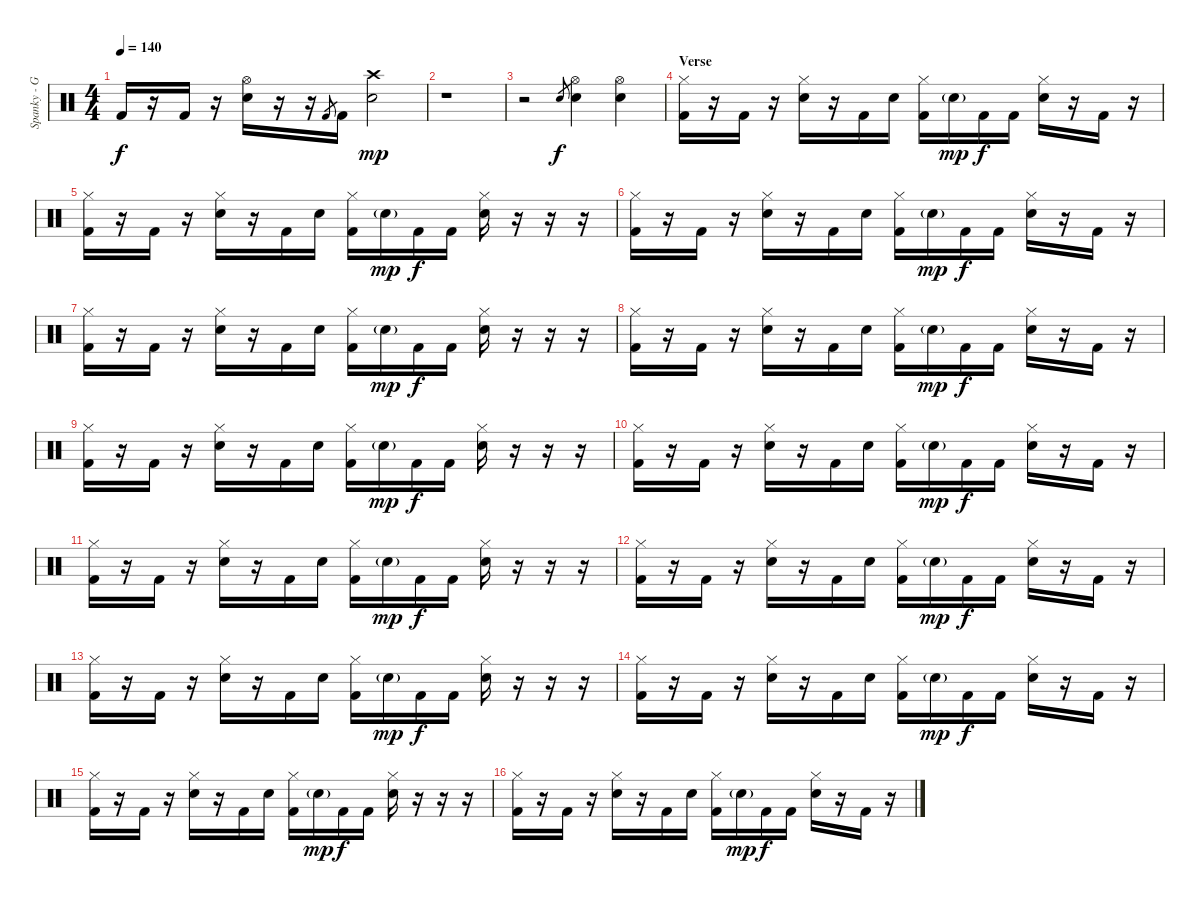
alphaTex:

\track ("Spanky - G (Ex-drummer)" "Spanky - G") {instrument percussion}
\staff {score}
\articulation defaults
\ts (4 4)
\tempo 140
\clef neutral
\ks c "Kick (hit) 2".16{dy f}
r.16 "Kick (hit) 2".16 r.16 ("Hi-Hat (open)" "Electric Snare (hit)").16 r.16 r.16 "Kick (hit) 2".8{gr} "Kick (hit) 2".16 ("Crash high (hit)" "Electric Snare (hit)").2{dy mp} |
r.1 |
r.2 "Electric Snare (hit)".8{gr dy f} ("Hi-Hat (open)" "Electric Snare (hit)").4 ("Hi-Hat (open)" "Electric Snare (hit)").4 |
\section ("" "Verse")
("Hi-Hat (closed)" "Kick (hit) 2").16 r.16 "Kick (hit) 2".16 r.16 ("Hi-Hat (closed)" "Electric Snare (hit)").16 r.16 "Kick (hit) 2".16 "Electric Snare (hit)".16 ("Hi-Hat (closed)" "Kick (hit) 2").16 "Electric Snare (hit)"{g}.16{dy mp} "Kick (hit) 2".16{dy f} "Kick (hit) 2".16 ("Hi-Hat (closed)" "Electric Snare (hit)").16 r.16 "Kick (hit) 2".16 r.16 |
("Hi-Hat (closed)" "Kick (hit) 2").16 r.16 "Kick (hit) 2".16 r.16 ("Hi-Hat (closed)" "Electric Snare (hit)").16 r.16 "Kick (hit) 2".16 "Electric Snare (hit)".16 ("Hi-Hat (closed)" "Kick (hit) 2").16 "Electric Snare (hit)"{g}.16{dy mp} "Kick (hit) 2".16{dy f} "Kick (hit) 2".16 ("Hi-Hat (closed)" "Electric Snare (hit)").16 r.16 r.16 r.16 |
("Hi-Hat (closed)" "Kick (hit) 2").16 r.16 "Kick (hit) 2".16 r.16 ("Hi-Hat (closed)" "Electric Snare (hit)").16 r.16 "Kick (hit) 2".16 "Electric Snare (hit)".16 ("Hi-Hat (closed)" "Kick (hit) 2").16 "Electric Snare (hit)"{g}.16{dy mp} "Kick (hit) 2".16{dy f} "Kick (hit) 2".16 ("Hi-Hat (closed)" "Electric Snare (hit)").16 r.16 "Kick (hit) 2".16 r.16 |
("Hi-Hat (closed)" "Kick (hit) 2").16 r.16 "Kick (hit) 2".16 r.16 ("Hi-Hat (closed)" "Electric Snare (hit)").16 r.16 "Kick (hit) 2".16 "Electric Snare (hit)".16 ("Hi-Hat (closed)" "Kick (hit) 2").16 "Electric Snare (hit)"{g}.16{dy mp} "Kick (hit) 2".16{dy f} "Kick (hit) 2".16 ("Hi-Hat (closed)" "Electric Snare (hit)").16 r.16 r.16 r.16 |
("Hi-Hat (closed)" "Kick (hit) 2").16 r.16 "Kick (hit) 2".16 r.16 ("Hi-Hat (closed)" "Electric Snare (hit)").16 r.16 "Kick (hit) 2".16 "Electric Snare (hit)".16 ("Hi-Hat (closed)" "Kick (hit) 2").16 "Electric Snare (hit)"{g}.16{dy mp} "Kick (hit) 2".16{dy f} "Kick (hit) 2".16 ("Hi-Hat (closed)" "Electric Snare (hit)").16 r.16 "Kick (hit) 2".16 r.16 |
("Hi-Hat (closed)" "Kick (hit) 2").16 r.16 "Kick (hit) 2".16 r.16 ("Hi-Hat (closed)" "Electric Snare (hit)").16 r.16 "Kick (hit) 2".16 "Electric Snare (hit)".16 ("Hi-Hat (closed)" "Kick (hit) 2").16 "Electric Snare (hit)"{g}.16{dy mp} "Kick (hit) 2".16{dy f} "Kick (hit) 2".16 ("Hi-Hat (closed)" "Electric Snare (hit)").16 r.16 r.16 r.16 |
("Hi-Hat (closed)" "Kick (hit) 2").16 r.16 "Kick (hit) 2".16 r.16 ("Hi-Hat (closed)" "Electric Snare (hit)").16 r.16 "Kick (hit) 2".16 "Electric Snare (hit)".16 ("Hi-Hat (closed)" "Kick (hit) 2").16 "Electric Snare (hit)"{g}.16{dy mp} "Kick (hit) 2".16{dy f} "Kick (hit) 2".16 ("Hi-Hat (closed)" "Electric Snare (hit)").16 r.16 "Kick (hit) 2".16 r.16 |
("Hi-Hat (closed)" "Kick (hit) 2").16 r.16 "Kick (hit) 2".16 r.16 ("Hi-Hat (closed)" "Electric Snare (hit)").16 r.16 "Kick (hit) 2".16 "Electric Snare (hit)".16 ("Hi-Hat (closed)" "Kick (hit) 2").16 "Electric Snare (hit)"{g}.16{dy mp} "Kick (hit) 2".16{dy f} "Kick (hit) 2".16 ("Hi-Hat (closed)" "Electric Snare (hit)").16 r.16 r.16 r.16 |
("Hi-Hat (closed)" "Kick (hit) 2").16 r.16 "Kick (hit) 2".16 r.16 ("Hi-Hat (closed)" "Electric Snare (hit)").16 r.16 "Kick (hit) 2".16 "Electric Snare (hit)".16 ("Hi-Hat (closed)" "Kick (hit) 2").16 "Electric Snare (hit)"{g}.16{dy mp} "Kick (hit) 2".16{dy f} "Kick (hit) 2".16 ("Hi-Hat (closed)" "Electric Snare (hit)").16 r.16 "Kick (hit) 2".16 r.16 |
("Hi-Hat (closed)" "Kick (hit) 2").16 r.16 "Kick (hit) 2".16 r.16 ("Hi-Hat (closed)" "Electric Snare (hit)").16 r.16 "Kick (hit) 2".16 "Electric Snare (hit)".16 ("Hi-Hat (closed)" "Kick (hit) 2").16 "Electric Snare (hit)"{g}.16{dy mp} "Kick (hit) 2".16{dy f} "Kick (hit) 2".16 ("Hi-Hat (closed)" "Electric Snare (hit)").16 r.16 r.16 r.16 |
("Hi-Hat (closed)" "Kick (hit) 2").16 r.16 "Kick (hit) 2".16 r.16 ("Hi-Hat (closed)" "Electric Snare (hit)").16 r.16 "Kick (hit) 2".16 "Electric Snare (hit)".16 ("Hi-Hat (closed)" "Kick (hit) 2").16 "Electric Snare (hit)"{g}.16{dy mp} "Kick (hit) 2".16{dy f} "Kick (hit) 2".16 ("Hi-Hat (closed)" "Electric Snare (hit)").16 r.16 "Kick (hit) 2".16 r.16 |
("Hi-Hat (closed)" "Kick (hit) 2").16 r.16 "Kick (hit) 2".16 r.16 ("Hi-Hat (closed)" "Electric Snare (hit)").16 r.16 "Kick (hit) 2".16 "Electric Snare (hit)".16 ("Hi-Hat (closed)" "Kick (hit) 2").16 "Electric Snare (hit)"{g}.16{dy mp} "Kick (hit) 2".16{dy f} "Kick (hit) 2".16 ("Hi-Hat (closed)" "Electric Snare (hit)").16 r.16 r.16 r.16 |
("Hi-Hat (closed)" "Kick (hit) 2").16 r.16 "Kick (hit) 2".16 r.16 ("Hi-Hat (closed)" "Electric Snare (hit)").16 r.16 "Kick (hit) 2".16 "Electric Snare (hit)".16 ("Hi-Hat (closed)" "Kick (hit) 2").16 "Electric Snare (hit)"{g}.16{dy mp} "Kick (hit) 2".16{dy f} "Kick (hit) 2".16 ("Hi-Hat (closed)" "Electric Snare (hit)").16 r.16 "Kick (hit) 2".16 r.16
